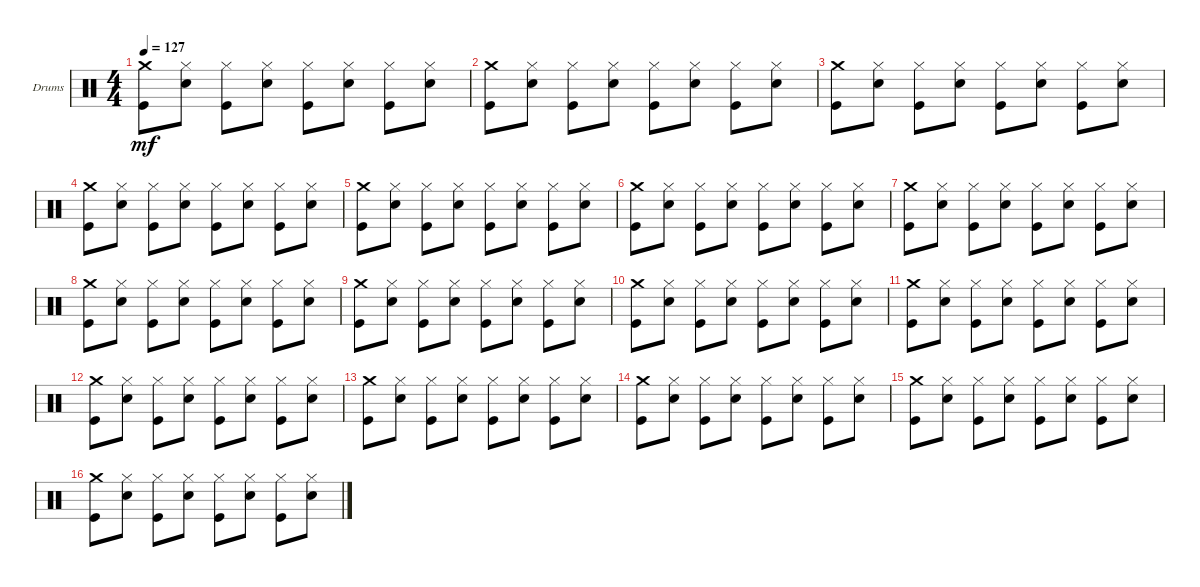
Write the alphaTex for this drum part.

\defaultSystemsLayout 4
\bracketExtendMode groupsimilarinstruments
\firstSystemTrackNameOrientation horizontal
\otherSystemsTrackNameOrientation horizontal
\track ("Е. Кулаков" "Drums") {instrument percussion}
\staff {score}
\articulation defaults
\ts (4 4)
\tempo 127
\clef neutral
\ks c
("Kick (hit)" "Crash medium (hit)").8{dy mf} ("Snare (hit) 2" "Hi-Hat (closed)").8 ("Kick (hit)" "Hi-Hat (closed)").8 ("Snare (hit) 2" "Hi-Hat (closed)").8 ("Kick (hit)" "Hi-Hat (closed)").8 ("Snare (hit) 2" "Hi-Hat (closed)").8 ("Kick (hit)" "Hi-Hat (closed)").8 ("Snare (hit) 2" "Hi-Hat (closed)").8 |
("Kick (hit)" "Crash medium (hit)").8 ("Snare (hit) 2" "Hi-Hat (closed)").8 ("Kick (hit)" "Hi-Hat (closed)").8 ("Snare (hit) 2" "Hi-Hat (closed)").8 ("Kick (hit)" "Hi-Hat (closed)").8 ("Snare (hit) 2" "Hi-Hat (closed)").8 ("Kick (hit)" "Hi-Hat (closed)").8 ("Snare (hit) 2" "Hi-Hat (closed)").8 |
("Kick (hit)" "Crash medium (hit)").8 ("Snare (hit) 2" "Hi-Hat (closed)").8 ("Kick (hit)" "Hi-Hat (closed)").8 ("Snare (hit) 2" "Hi-Hat (closed)").8 ("Kick (hit)" "Hi-Hat (closed)").8 ("Snare (hit) 2" "Hi-Hat (closed)").8 ("Kick (hit)" "Hi-Hat (closed)").8 ("Snare (hit) 2" "Hi-Hat (closed)").8 |
("Kick (hit)" "Crash medium (hit)").8 ("Snare (hit) 2" "Hi-Hat (closed)").8 ("Kick (hit)" "Hi-Hat (closed)").8 ("Snare (hit) 2" "Hi-Hat (closed)").8 ("Kick (hit)" "Hi-Hat (closed)").8 ("Snare (hit) 2" "Hi-Hat (closed)").8 ("Kick (hit)" "Hi-Hat (closed)").8 ("Snare (hit) 2" "Hi-Hat (closed)").8 |
("Kick (hit)" "Crash medium (hit)").8 ("Snare (hit) 2" "Hi-Hat (closed)").8 ("Kick (hit)" "Hi-Hat (closed)").8 ("Snare (hit) 2" "Hi-Hat (closed)").8 ("Kick (hit)" "Hi-Hat (closed)").8 ("Snare (hit) 2" "Hi-Hat (closed)").8 ("Kick (hit)" "Hi-Hat (closed)").8 ("Snare (hit) 2" "Hi-Hat (closed)").8 |
("Kick (hit)" "Crash medium (hit)").8 ("Snare (hit) 2" "Hi-Hat (closed)").8 ("Kick (hit)" "Hi-Hat (closed)").8 ("Snare (hit) 2" "Hi-Hat (closed)").8 ("Kick (hit)" "Hi-Hat (closed)").8 ("Snare (hit) 2" "Hi-Hat (closed)").8 ("Kick (hit)" "Hi-Hat (closed)").8 ("Snare (hit) 2" "Hi-Hat (closed)").8 |
("Kick (hit)" "Crash medium (hit)").8 ("Snare (hit) 2" "Hi-Hat (closed)").8 ("Kick (hit)" "Hi-Hat (closed)").8 ("Snare (hit) 2" "Hi-Hat (closed)").8 ("Kick (hit)" "Hi-Hat (closed)").8 ("Snare (hit) 2" "Hi-Hat (closed)").8 ("Kick (hit)" "Hi-Hat (closed)").8 ("Snare (hit) 2" "Hi-Hat (closed)").8 |
("Kick (hit)" "Crash medium (hit)").8 ("Snare (hit) 2" "Hi-Hat (closed)").8 ("Kick (hit)" "Hi-Hat (closed)").8 ("Snare (hit) 2" "Hi-Hat (closed)").8 ("Kick (hit)" "Hi-Hat (closed)").8 ("Snare (hit) 2" "Hi-Hat (closed)").8 ("Kick (hit)" "Hi-Hat (closed)").8 ("Snare (hit) 2" "Hi-Hat (closed)").8 |
("Kick (hit)" "Crash medium (hit)").8 ("Snare (hit) 2" "Hi-Hat (closed)").8 ("Kick (hit)" "Hi-Hat (closed)").8 ("Snare (hit) 2" "Hi-Hat (closed)").8 ("Kick (hit)" "Hi-Hat (closed)").8 ("Snare (hit) 2" "Hi-Hat (closed)").8 ("Kick (hit)" "Hi-Hat (closed)").8 ("Snare (hit) 2" "Hi-Hat (closed)").8 |
("Kick (hit)" "Crash medium (hit)").8 ("Snare (hit) 2" "Hi-Hat (closed)").8 ("Kick (hit)" "Hi-Hat (closed)").8 ("Snare (hit) 2" "Hi-Hat (closed)").8 ("Kick (hit)" "Hi-Hat (closed)").8 ("Snare (hit) 2" "Hi-Hat (closed)").8 ("Kick (hit)" "Hi-Hat (closed)").8 ("Snare (hit) 2" "Hi-Hat (closed)").8 |
("Kick (hit)" "Crash medium (hit)").8 ("Snare (hit) 2" "Hi-Hat (closed)").8 ("Kick (hit)" "Hi-Hat (closed)").8 ("Snare (hit) 2" "Hi-Hat (closed)").8 ("Kick (hit)" "Hi-Hat (closed)").8 ("Snare (hit) 2" "Hi-Hat (closed)").8 ("Kick (hit)" "Hi-Hat (closed)").8 ("Snare (hit) 2" "Hi-Hat (closed)").8 |
("Kick (hit)" "Crash medium (hit)").8 ("Snare (hit) 2" "Hi-Hat (closed)").8 ("Kick (hit)" "Hi-Hat (closed)").8 ("Snare (hit) 2" "Hi-Hat (closed)").8 ("Kick (hit)" "Hi-Hat (closed)").8 ("Snare (hit) 2" "Hi-Hat (closed)").8 ("Kick (hit)" "Hi-Hat (closed)").8 ("Snare (hit) 2" "Hi-Hat (closed)").8 |
("Kick (hit)" "Crash medium (hit)").8 ("Snare (hit) 2" "Hi-Hat (closed)").8 ("Kick (hit)" "Hi-Hat (closed)").8 ("Snare (hit) 2" "Hi-Hat (closed)").8 ("Kick (hit)" "Hi-Hat (closed)").8 ("Snare (hit) 2" "Hi-Hat (closed)").8 ("Kick (hit)" "Hi-Hat (closed)").8 ("Snare (hit) 2" "Hi-Hat (closed)").8 |
("Kick (hit)" "Crash medium (hit)").8 ("Snare (hit) 2" "Hi-Hat (closed)").8 ("Kick (hit)" "Hi-Hat (closed)").8 ("Snare (hit) 2" "Hi-Hat (closed)").8 ("Kick (hit)" "Hi-Hat (closed)").8 ("Snare (hit) 2" "Hi-Hat (closed)").8 ("Kick (hit)" "Hi-Hat (closed)").8 ("Snare (hit) 2" "Hi-Hat (closed)").8 |
("Kick (hit)" "Crash medium (hit)").8 ("Snare (hit) 2" "Hi-Hat (closed)").8 ("Kick (hit)" "Hi-Hat (closed)").8 ("Snare (hit) 2" "Hi-Hat (closed)").8 ("Kick (hit)" "Hi-Hat (closed)").8 ("Snare (hit) 2" "Hi-Hat (closed)").8 ("Kick (hit)" "Hi-Hat (closed)").8 ("Snare (hit) 2" "Hi-Hat (closed)").8 |
("Kick (hit)" "Crash medium (hit)").8 ("Snare (hit) 2" "Hi-Hat (closed)").8 ("Kick (hit)" "Hi-Hat (closed)").8 ("Snare (hit) 2" "Hi-Hat (closed)").8 ("Kick (hit)" "Hi-Hat (closed)").8 ("Snare (hit) 2" "Hi-Hat (closed)").8 ("Kick (hit)" "Hi-Hat (closed)").8 ("Snare (hit) 2" "Hi-Hat (closed)").8
